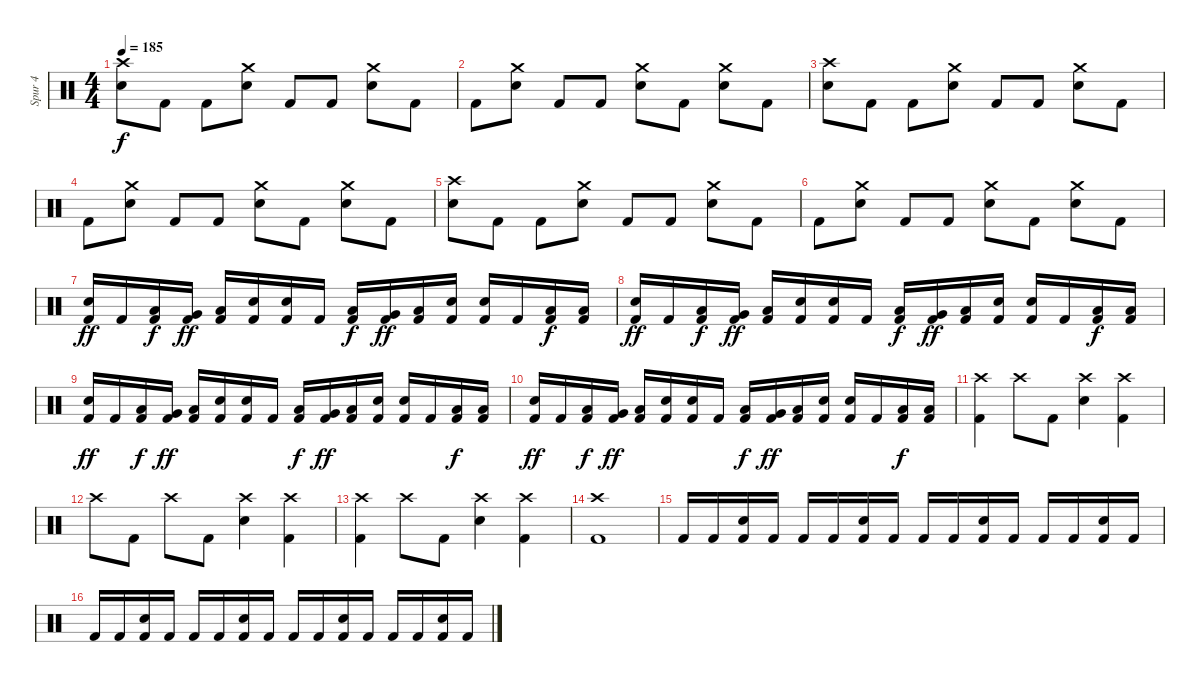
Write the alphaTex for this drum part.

\track ("Spur 4" "Spur 4") {instrument percussion}
\staff {score}
\articulation defaults
\ts (4 4)
\tempo 185
\clef neutral
\ks c
("Crash high (hit)" "Electric Snare (hit)").8{dy f} "Kick (hit) 2".8 "Kick (hit) 2".8 ("Crash medium (hit)" "Electric Snare (hit)").8 "Kick (hit) 2".8 "Kick (hit) 2".8 ("Crash medium (hit)" "Electric Snare (hit)").8 "Kick (hit) 2".8 |
"Kick (hit) 2".8 ("Crash medium (hit)" "Electric Snare (hit)").8 "Kick (hit) 2".8 "Kick (hit) 2".8 ("Crash medium (hit)" "Electric Snare (hit)").8 "Kick (hit) 2".8 ("Crash medium (hit)" "Electric Snare (hit)").8 "Kick (hit) 2".8 |
("Crash high (hit)" "Electric Snare (hit)").8 "Kick (hit) 2".8 "Kick (hit) 2".8 ("Crash medium (hit)" "Electric Snare (hit)").8 "Kick (hit) 2".8 "Kick (hit) 2".8 ("Crash medium (hit)" "Electric Snare (hit)").8 "Kick (hit) 2".8 |
"Kick (hit) 2".8 ("Crash medium (hit)" "Electric Snare (hit)").8 "Kick (hit) 2".8 "Kick (hit) 2".8 ("Crash medium (hit)" "Electric Snare (hit)").8 "Kick (hit) 2".8 ("Crash medium (hit)" "Electric Snare (hit)").8 "Kick (hit) 2".8 |
("Crash high (hit)" "Electric Snare (hit)").8 "Kick (hit) 2".8 "Kick (hit) 2".8 ("Crash medium (hit)" "Electric Snare (hit)").8 "Kick (hit) 2".8 "Kick (hit) 2".8 ("Crash medium (hit)" "Electric Snare (hit)").8 "Kick (hit) 2".8 |
"Kick (hit) 2".8 ("Crash medium (hit)" "Electric Snare (hit)").8 "Kick (hit) 2".8 "Kick (hit) 2".8 ("Crash medium (hit)" "Electric Snare (hit)").8 "Kick (hit) 2".8 ("Crash medium (hit)" "Electric Snare (hit)").8 "Kick (hit) 2".8 |
("Electric Snare (hit)" "Kick (hit) 2").16{dy ff} "Kick (hit) 2".16 ("Low Tom (hit)" "Kick (hit) 2").16{dy f} ("Very Low Tom (hit)" "Kick (hit) 2").16{dy ff} ("Low Floor Tom (hit)" "Kick (hit) 2").16 ("Electric Snare (hit)" "Kick (hit) 2").16 ("Electric Snare (hit)" "Kick (hit) 2").16 "Kick (hit) 2".16 ("Low Tom (hit)" "Kick (hit) 2").16{dy f} ("Very Low Tom (hit)" "Kick (hit) 2").16{dy ff} ("Low Floor Tom (hit)" "Kick (hit) 2").16 ("Electric Snare (hit)" "Kick (hit) 2").16 ("Electric Snare (hit)" "Kick (hit) 2").16 "Kick (hit) 2".16 ("Low Tom (hit)" "Kick (hit) 2").16{dy f} ("Low Tom (hit)" "Kick (hit) 2").16 |
("Electric Snare (hit)" "Kick (hit) 2").16{dy ff} "Kick (hit) 2".16 ("Low Tom (hit)" "Kick (hit) 2").16{dy f} ("Very Low Tom (hit)" "Kick (hit) 2").16{dy ff} ("Low Floor Tom (hit)" "Kick (hit) 2").16 ("Electric Snare (hit)" "Kick (hit) 2").16 ("Electric Snare (hit)" "Kick (hit) 2").16 "Kick (hit) 2".16 ("Low Tom (hit)" "Kick (hit) 2").16{dy f} ("Very Low Tom (hit)" "Kick (hit) 2").16{dy ff} ("Low Floor Tom (hit)" "Kick (hit) 2").16 ("Electric Snare (hit)" "Kick (hit) 2").16 ("Electric Snare (hit)" "Kick (hit) 2").16 "Kick (hit) 2".16 ("Low Tom (hit)" "Kick (hit) 2").16{dy f} ("Low Tom (hit)" "Kick (hit) 2").16 |
("Electric Snare (hit)" "Kick (hit) 2").16{dy ff} "Kick (hit) 2".16 ("Low Tom (hit)" "Kick (hit) 2").16{dy f} ("Very Low Tom (hit)" "Kick (hit) 2").16{dy ff} ("Low Floor Tom (hit)" "Kick (hit) 2").16 ("Electric Snare (hit)" "Kick (hit) 2").16 ("Electric Snare (hit)" "Kick (hit) 2").16 "Kick (hit) 2".16 ("Low Tom (hit)" "Kick (hit) 2").16{dy f} ("Very Low Tom (hit)" "Kick (hit) 2").16{dy ff} ("Low Floor Tom (hit)" "Kick (hit) 2").16 ("Electric Snare (hit)" "Kick (hit) 2").16 ("Electric Snare (hit)" "Kick (hit) 2").16 "Kick (hit) 2".16 ("Low Tom (hit)" "Kick (hit) 2").16{dy f} ("Low Tom (hit)" "Kick (hit) 2").16 |
("Electric Snare (hit)" "Kick (hit) 2").16{dy ff} "Kick (hit) 2".16 ("Low Tom (hit)" "Kick (hit) 2").16{dy f} ("Very Low Tom (hit)" "Kick (hit) 2").16{dy ff} ("Low Floor Tom (hit)" "Kick (hit) 2").16 ("Electric Snare (hit)" "Kick (hit) 2").16 ("Electric Snare (hit)" "Kick (hit) 2").16 "Kick (hit) 2".16 ("Low Tom (hit)" "Kick (hit) 2").16{dy f} ("Very Low Tom (hit)" "Kick (hit) 2").16{dy ff} ("Low Floor Tom (hit)" "Kick (hit) 2").16 ("Electric Snare (hit)" "Kick (hit) 2").16 ("Electric Snare (hit)" "Kick (hit) 2").16 "Kick (hit) 2".16 ("Low Tom (hit)" "Kick (hit) 2").16{dy f} ("Low Tom (hit)" "Kick (hit) 2").16 |
("Crash high (hit)" "Kick (hit) 2").4 "Crash high (hit)".8 "Kick (hit) 2".8 ("Crash high (hit)" "Electric Snare (hit)").4 ("Crash high (hit)" "Kick (hit) 2").4 |
"Crash high (hit)".8 "Kick (hit) 2".8 "Crash high (hit)".8 "Kick (hit) 2".8 ("Crash high (hit)" "Electric Snare (hit)").4 ("Crash high (hit)" "Kick (hit) 2").4 |
("Crash high (hit)" "Kick (hit) 2").4 "Crash high (hit)".8 "Kick (hit) 2".8 ("Crash high (hit)" "Electric Snare (hit)").4 ("Crash high (hit)" "Kick (hit) 2").4 |
("Crash high (hit)" "Kick (hit) 2").1 |
"Kick (hit) 2".16 "Kick (hit) 2".16 ("Electric Snare (hit)" "Kick (hit) 2").16 "Kick (hit) 2".16 "Kick (hit) 2".16 "Kick (hit) 2".16 ("Electric Snare (hit)" "Kick (hit) 2").16 "Kick (hit) 2".16 "Kick (hit) 2".16 "Kick (hit) 2".16 ("Electric Snare (hit)" "Kick (hit) 2").16 "Kick (hit) 2".16 "Kick (hit) 2".16 "Kick (hit) 2".16 ("Electric Snare (hit)" "Kick (hit) 2").16 "Kick (hit) 2".16 |
"Kick (hit) 2".16 "Kick (hit) 2".16 ("Electric Snare (hit)" "Kick (hit) 2").16 "Kick (hit) 2".16 "Kick (hit) 2".16 "Kick (hit) 2".16 ("Electric Snare (hit)" "Kick (hit) 2").16 "Kick (hit) 2".16 "Kick (hit) 2".16 "Kick (hit) 2".16 ("Electric Snare (hit)" "Kick (hit) 2").16 "Kick (hit) 2".16 "Kick (hit) 2".16 "Kick (hit) 2".16 ("Electric Snare (hit)" "Kick (hit) 2").16 "Kick (hit) 2".16
